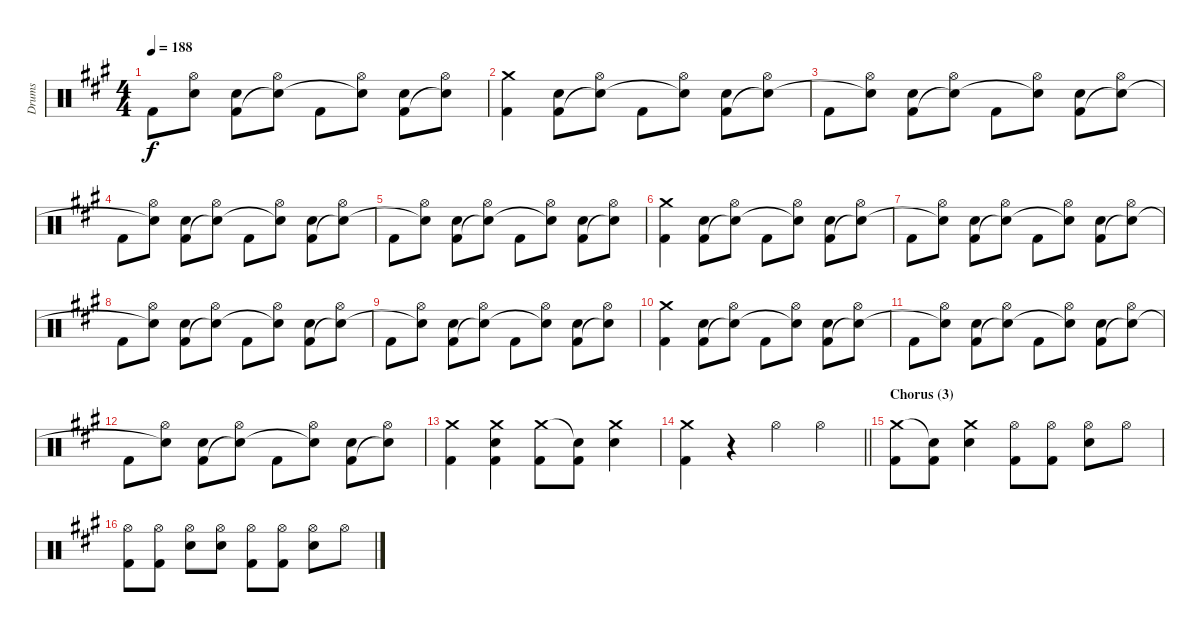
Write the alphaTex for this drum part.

\track ("Drums" "Drums") {instrument percussion}
\staff {score}
\articulation defaults
\ts (4 4)
\tempo 188
\clef neutral
\ks a "Kick (hit) 2".8{dy f}
("Hi-Hat (open)" "Snare (hit)"{t}).8 ("Electric Snare (hit)" "Kick (hit) 2").8 ("Hi-Hat (open)" "Snare (hit)"{t}).8 "Kick (hit) 2".8 ("Hi-Hat (open)" "Snare (hit)"{t}).8 ("Electric Snare (hit)" "Kick (hit) 2").8 ("Hi-Hat (open)" "Snare (hit)"{t}).8 |
("Crash medium (hit)" "Kick (hit) 2").4 ("Electric Snare (hit)" "Kick (hit) 2").8 ("Hi-Hat (open)" "Snare (hit)"{t}).8 "Kick (hit) 2".8 ("Hi-Hat (open)" "Snare (hit)"{t}).8 ("Electric Snare (hit)" "Kick (hit) 2").8 ("Hi-Hat (open)" "Snare (hit)"{t}).8 |
"Kick (hit) 2".8 ("Hi-Hat (open)" "Snare (hit)"{t}).8 ("Electric Snare (hit)" "Kick (hit) 2").8 ("Hi-Hat (open)" "Snare (hit)"{t}).8 "Kick (hit) 2".8 ("Hi-Hat (open)" "Snare (hit)"{t}).8 ("Electric Snare (hit)" "Kick (hit) 2").8 ("Hi-Hat (open)" "Snare (hit)"{t}).8 |
"Kick (hit) 2".8 ("Hi-Hat (open)" "Snare (hit)"{t}).8 ("Electric Snare (hit)" "Kick (hit) 2").8 ("Hi-Hat (open)" "Snare (hit)"{t}).8 "Kick (hit) 2".8 ("Hi-Hat (open)" "Snare (hit)"{t}).8 ("Electric Snare (hit)" "Kick (hit) 2").8 ("Hi-Hat (open)" "Snare (hit)"{t}).8 |
"Kick (hit) 2".8 ("Hi-Hat (open)" "Snare (hit)"{t}).8 ("Electric Snare (hit)" "Kick (hit) 2").8 ("Hi-Hat (open)" "Snare (hit)"{t}).8 "Kick (hit) 2".8 ("Hi-Hat (open)" "Snare (hit)"{t}).8 ("Electric Snare (hit)" "Kick (hit) 2").8 ("Hi-Hat (open)" "Snare (hit)"{t}).8 |
("Crash medium (hit)" "Kick (hit) 2").4 ("Electric Snare (hit)" "Kick (hit) 2").8 ("Hi-Hat (open)" "Snare (hit)"{t}).8 "Kick (hit) 2".8 ("Hi-Hat (open)" "Snare (hit)"{t}).8 ("Electric Snare (hit)" "Kick (hit) 2").8 ("Hi-Hat (open)" "Snare (hit)"{t}).8 |
"Kick (hit) 2".8 ("Hi-Hat (open)" "Snare (hit)"{t}).8 ("Electric Snare (hit)" "Kick (hit) 2").8 ("Hi-Hat (open)" "Snare (hit)"{t}).8 "Kick (hit) 2".8 ("Hi-Hat (open)" "Snare (hit)"{t}).8 ("Electric Snare (hit)" "Kick (hit) 2").8 ("Hi-Hat (open)" "Snare (hit)"{t}).8 |
"Kick (hit) 2".8 ("Hi-Hat (open)" "Snare (hit)"{t}).8 ("Electric Snare (hit)" "Kick (hit) 2").8 ("Hi-Hat (open)" "Snare (hit)"{t}).8 "Kick (hit) 2".8 ("Hi-Hat (open)" "Snare (hit)"{t}).8 ("Electric Snare (hit)" "Kick (hit) 2").8 ("Hi-Hat (open)" "Snare (hit)"{t}).8 |
"Kick (hit) 2".8 ("Hi-Hat (open)" "Snare (hit)"{t}).8 ("Electric Snare (hit)" "Kick (hit) 2").8 ("Hi-Hat (open)" "Snare (hit)"{t}).8 "Kick (hit) 2".8 ("Hi-Hat (open)" "Snare (hit)"{t}).8 ("Electric Snare (hit)" "Kick (hit) 2").8 ("Hi-Hat (open)" "Snare (hit)"{t}).8 |
("Crash medium (hit)" "Kick (hit) 2").4 ("Electric Snare (hit)" "Kick (hit) 2").8 ("Hi-Hat (open)" "Snare (hit)"{t}).8 "Kick (hit) 2".8 ("Hi-Hat (open)" "Snare (hit)"{t}).8 ("Electric Snare (hit)" "Kick (hit) 2").8 ("Hi-Hat (open)" "Snare (hit)"{t}).8 |
"Kick (hit) 2".8 ("Hi-Hat (open)" "Snare (hit)"{t}).8 ("Electric Snare (hit)" "Kick (hit) 2").8 ("Hi-Hat (open)" "Snare (hit)"{t}).8 "Kick (hit) 2".8 ("Hi-Hat (open)" "Snare (hit)"{t}).8 ("Electric Snare (hit)" "Kick (hit) 2").8 ("Hi-Hat (open)" "Snare (hit)"{t}).8 |
"Kick (hit) 2".8 ("Hi-Hat (open)" "Snare (hit)"{t}).8 ("Electric Snare (hit)" "Kick (hit) 2").8 ("Hi-Hat (open)" "Snare (hit)"{t}).8 "Kick (hit) 2".8 ("Hi-Hat (open)" "Snare (hit)"{t}).8 ("Electric Snare (hit)" "Kick (hit) 2").8 ("Hi-Hat (open)" "Snare (hit)"{t}).8 |
("Crash medium (hit)" "Kick (hit) 2").4 ("Crash medium (hit)" "Electric Snare (hit)" "Kick (hit) 2").4 ("Crash medium (hit)" "Kick (hit) 2").8 ("Snare (hit)"{t} "Kick (hit) 2").8 ("Crash medium (hit)" "Electric Snare (hit)").4 |
\barLineRight lightlight
("Crash medium (hit)" "Kick (hit) 2").4 r.4 "Hi-Hat (open)".4 "Hi-Hat (open)".4 |
\section ("" "Chorus (3)")
("Crash medium (hit)" "Kick (hit) 2").8 ("Snare (hit)"{t} "Kick (hit) 2").8 ("Crash medium (hit)" "Electric Snare (hit)").4 ("Hi-Hat (open)" "Kick (hit) 2").8 ("Hi-Hat (open)" "Kick (hit) 2").8 ("Hi-Hat (open)" "Electric Snare (hit)").8 "Hi-Hat (open)".8 |
("Hi-Hat (open)" "Kick (hit) 2").8 ("Hi-Hat (open)" "Kick (hit) 2").8 ("Hi-Hat (open)" "Electric Snare (hit)").8 ("Hi-Hat (open)" "Electric Snare (hit)").8 ("Hi-Hat (open)" "Kick (hit) 2").8 ("Hi-Hat (open)" "Kick (hit) 2").8 ("Hi-Hat (open)" "Electric Snare (hit)").8 "Hi-Hat (open)".8
